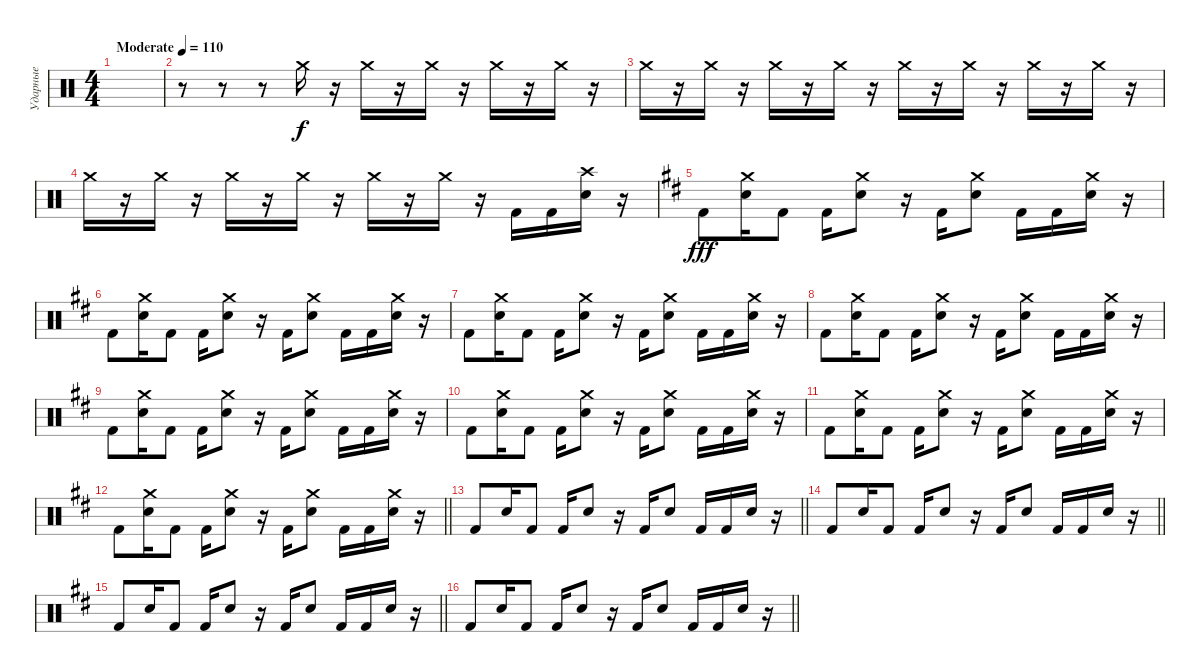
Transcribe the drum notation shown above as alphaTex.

\track ("Ударные" "Ударные") {instrument percussion}
\staff {score}
\articulation defaults
\ts (4 4)
\tempo (110 "Moderate")
\clef neutral
\ks c
|
r.8 r.8 r.8 "Crash medium (hit)".16 r.16 "Crash medium (hit)".16 r.16 "Crash medium (hit)".16 r.16 "Crash medium (hit)".16 r.16 "Crash medium (hit)".16 r.16 |
"Crash medium (hit)".16 r.16 "Crash medium (hit)".16 r.16 "Crash medium (hit)".16 r.16 "Crash medium (hit)".16 r.16 "Crash medium (hit)".16 r.16 "Crash medium (hit)".16 r.16 "Crash medium (hit)".16 r.16 "Crash medium (hit)".16 r.16 |
"Crash medium (hit)".16 r.16 "Crash medium (hit)".16 r.16 "Crash medium (hit)".16 r.16 "Crash medium (hit)".16 r.16 "Crash medium (hit)".16 r.16 "Crash medium (hit)".16 r.16 "Kick (hit) 2".16 "Kick (hit) 2".16 ("Crash high (hit)" "Electric Snare (hit)").16 r.16 |
\ks d "Kick (hit) 2".8{dy fff}
("Crash medium (hit)" "Electric Snare (hit)").16 "Kick (hit) 2".8 "Kick (hit) 2".16 ("Crash medium (hit)" "Electric Snare (hit)").8 r.16 "Kick (hit) 2".16 ("Crash medium (hit)" "Electric Snare (hit)").8 "Kick (hit) 2".16 "Kick (hit) 2".16 ("Crash medium (hit)" "Electric Snare (hit)").16 r.16 |
"Kick (hit) 2".8 ("Crash medium (hit)" "Electric Snare (hit)").16 "Kick (hit) 2".8 "Kick (hit) 2".16 ("Crash medium (hit)" "Electric Snare (hit)").8 r.16 "Kick (hit) 2".16 ("Crash medium (hit)" "Electric Snare (hit)").8 "Kick (hit) 2".16 "Kick (hit) 2".16 ("Crash medium (hit)" "Electric Snare (hit)").16 r.16 |
"Kick (hit) 2".8 ("Crash medium (hit)" "Electric Snare (hit)").16 "Kick (hit) 2".8 "Kick (hit) 2".16 ("Crash medium (hit)" "Electric Snare (hit)").8 r.16 "Kick (hit) 2".16 ("Crash medium (hit)" "Electric Snare (hit)").8 "Kick (hit) 2".16 "Kick (hit) 2".16 ("Crash medium (hit)" "Electric Snare (hit)").16 r.16 |
"Kick (hit) 2".8 ("Crash medium (hit)" "Electric Snare (hit)").16 "Kick (hit) 2".8 "Kick (hit) 2".16 ("Crash medium (hit)" "Electric Snare (hit)").8 r.16 "Kick (hit) 2".16 ("Crash medium (hit)" "Electric Snare (hit)").8 "Kick (hit) 2".16 "Kick (hit) 2".16 ("Crash medium (hit)" "Electric Snare (hit)").16 r.16 |
"Kick (hit) 2".8 ("Crash medium (hit)" "Electric Snare (hit)").16 "Kick (hit) 2".8 "Kick (hit) 2".16 ("Crash medium (hit)" "Electric Snare (hit)").8 r.16 "Kick (hit) 2".16 ("Crash medium (hit)" "Electric Snare (hit)").8 "Kick (hit) 2".16 "Kick (hit) 2".16 ("Crash medium (hit)" "Electric Snare (hit)").16 r.16 |
"Kick (hit) 2".8 ("Crash medium (hit)" "Electric Snare (hit)").16 "Kick (hit) 2".8 "Kick (hit) 2".16 ("Crash medium (hit)" "Electric Snare (hit)").8 r.16 "Kick (hit) 2".16 ("Crash medium (hit)" "Electric Snare (hit)").8 "Kick (hit) 2".16 "Kick (hit) 2".16 ("Crash medium (hit)" "Electric Snare (hit)").16 r.16 |
"Kick (hit) 2".8 ("Crash medium (hit)" "Electric Snare (hit)").16 "Kick (hit) 2".8 "Kick (hit) 2".16 ("Crash medium (hit)" "Electric Snare (hit)").8 r.16 "Kick (hit) 2".16 ("Crash medium (hit)" "Electric Snare (hit)").8 "Kick (hit) 2".16 "Kick (hit) 2".16 ("Crash medium (hit)" "Electric Snare (hit)").16 r.16 |
\barLineRight lightlight "Kick (hit) 2".8
("Crash medium (hit)" "Electric Snare (hit)").16 "Kick (hit) 2".8 "Kick (hit) 2".16 ("Crash medium (hit)" "Electric Snare (hit)").8 r.16 "Kick (hit) 2".16 ("Crash medium (hit)" "Electric Snare (hit)").8 "Kick (hit) 2".16 "Kick (hit) 2".16 ("Crash medium (hit)" "Electric Snare (hit)").16 r.16 |
\section ("" "")
\barLineRight lightlight "Kick (hit) 2".8 "Electric Snare (hit)".16 "Kick (hit) 2".8 "Kick (hit) 2".16 "Electric Snare (hit)".8
r.16 "Kick (hit) 2".16 "Electric Snare (hit)".8 "Kick (hit) 2".16 "Kick (hit) 2".16 "Electric Snare (hit)".16 r.16 |
\barLineRight lightlight "Kick (hit) 2".8 "Electric Snare (hit)".16 "Kick (hit) 2".8 "Kick (hit) 2".16 "Electric Snare (hit)".8
r.16 "Kick (hit) 2".16 "Electric Snare (hit)".8 "Kick (hit) 2".16 "Kick (hit) 2".16 "Electric Snare (hit)".16 r.16 |
\barLineRight lightlight "Kick (hit) 2".8 "Electric Snare (hit)".16 "Kick (hit) 2".8 "Kick (hit) 2".16 "Electric Snare (hit)".8
r.16 "Kick (hit) 2".16 "Electric Snare (hit)".8 "Kick (hit) 2".16 "Kick (hit) 2".16 "Electric Snare (hit)".16 r.16 |
\barLineRight lightlight "Kick (hit) 2".8 "Electric Snare (hit)".16 "Kick (hit) 2".8 "Kick (hit) 2".16 "Electric Snare (hit)".8
r.16 "Kick (hit) 2".16 "Electric Snare (hit)".8 "Kick (hit) 2".16 "Kick (hit) 2".16 "Electric Snare (hit)".16 r.16
